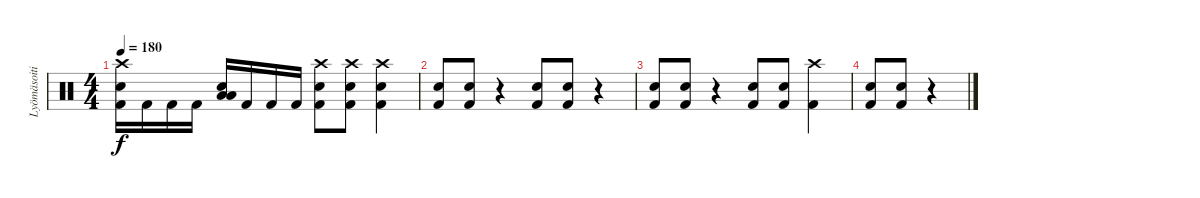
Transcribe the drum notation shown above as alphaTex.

\track ("Lyömäsoitin" "Lyömäsoiti") {instrument percussion}
\staff {score}
\articulation defaults
\ts (4 4)
\tempo 180
\clef neutral
\ks c
("Kick (hit) 2" "Snare (hit) 2" "Crash high (hit)").16{dy f} "Kick (hit) 2".16 "Kick (hit) 2".16 "Kick (hit) 2".16 ("Snare (hit) 2" "Low Floor Tom (hit)" "Low Floor Tom (hit)").16 "Kick (hit) 2".16 "Kick (hit) 2".16 "Kick (hit) 2".16 ("Kick (hit) 2" "Snare (hit) 2" "Crash high (hit)").8 ("Kick (hit) 2" "Snare (hit) 2" "Crash high (hit)").8 ("Kick (hit) 2" "Snare (hit) 2" "Crash high (hit)").4 |
("Kick (hit) 2" "Snare (hit) 2").8 ("Kick (hit) 2" "Snare (hit) 2").8 r.4 ("Kick (hit) 2" "Snare (hit) 2").8 ("Kick (hit) 2" "Snare (hit) 2").8 r.4 |
("Kick (hit) 2" "Snare (hit) 2").8 ("Kick (hit) 2" "Snare (hit) 2").8 r.4 ("Kick (hit) 2" "Snare (hit) 2").8 ("Kick (hit) 2" "Snare (hit) 2").8 ("Kick (hit) 2" "Crash high (hit)").4 |
("Kick (hit) 2" "Snare (hit) 2").8 ("Kick (hit) 2" "Snare (hit) 2").8 r.4
